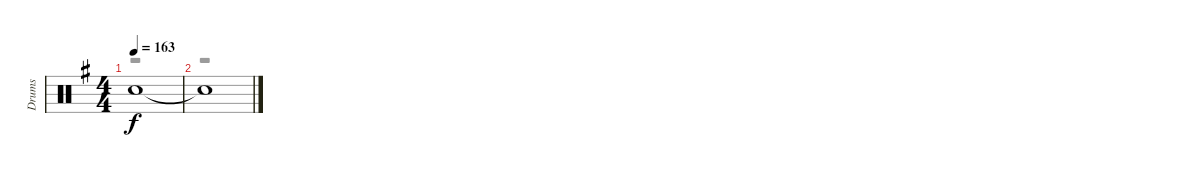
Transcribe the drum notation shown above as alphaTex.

\track ("Drums" "Drums") {instrument percussion}
\staff {score}
\articulation defaults
\voice
\ts (4 4)
\tempo 163
\clef neutral
\ks g "Snare (hit)"{t}.1{dy f}
|
"Snare (hit)"{t}.1
\voice
\clef neutral
\ottava regular
\simile none
\ks g
r.1{dy f} |
r.1
